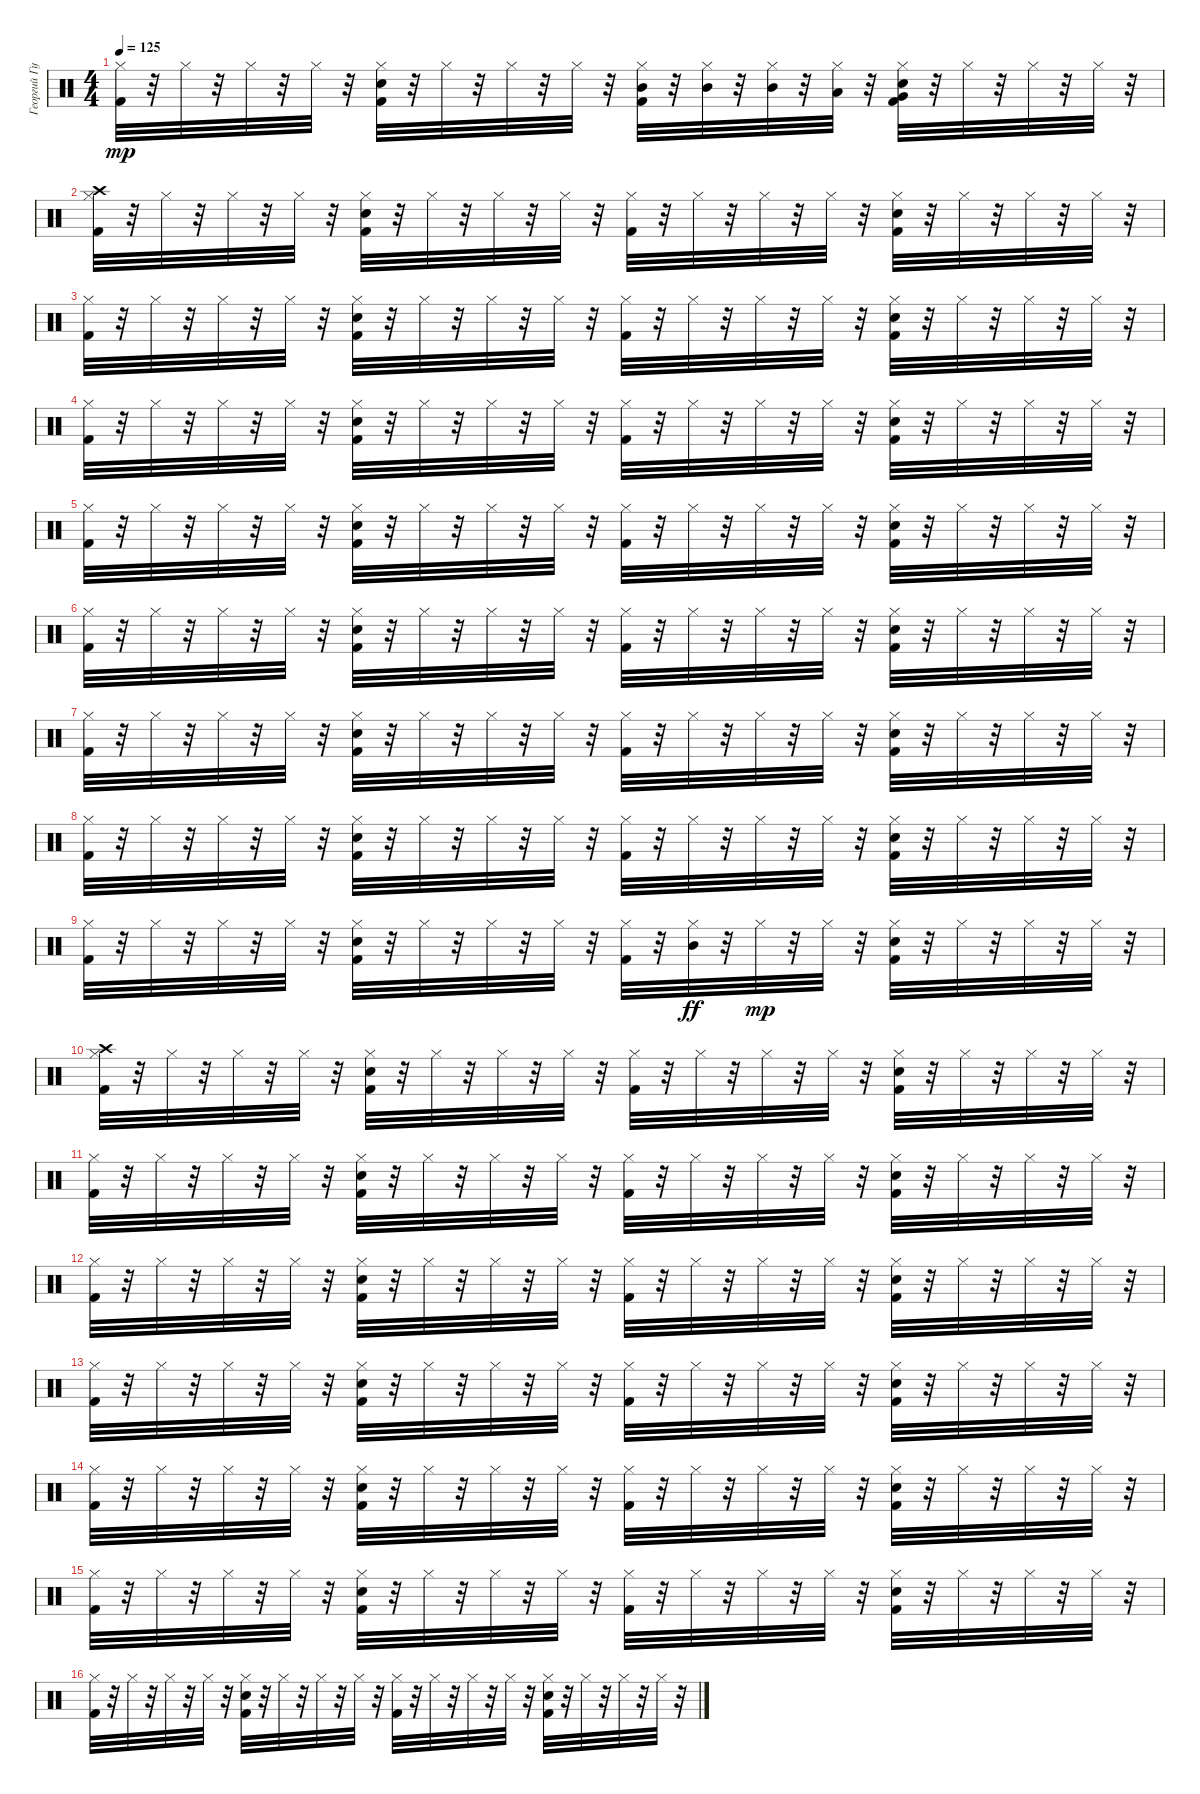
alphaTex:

\track ("Георгий Гурьянов" "Георгий Гу") {instrument percussion}
\staff {score}
\articulation defaults
\ts (4 4)
\tempo 125
\clef neutral
\ks c
("Kick (hit) 2" "Hi-Hat (closed)").32{dy mp} r.32 "Hi-Hat (closed)".32 r.32 "Hi-Hat (closed)".32 r.32 "Hi-Hat (closed)".32 r.32 ("Kick (hit) 2" "Snare (hit) 2" "Hi-Hat (closed)").32 r.32 "Hi-Hat (closed)".32 r.32 "Hi-Hat (closed)".32 r.32 "Hi-Hat (closed)".32 r.32 ("Mid Tom (hit)" "Kick (hit) 2" "Hi-Hat (closed)").32 r.32 ("Mid Tom (hit)" "Hi-Hat (closed)").32 r.32 ("Mid Tom (hit)" "Hi-Hat (closed)").32 r.32 ("Low Tom (hit)" "Hi-Hat (closed)").32 r.32 ("Very Low Tom (hit)" "Kick (hit) 2" "Snare (hit) 2" "Hi-Hat (closed)").32 r.32 "Hi-Hat (closed)".32 r.32 "Hi-Hat (closed)".32 r.32 "Hi-Hat (closed)".32 r.32 |
("Crash high (hit)" "Kick (hit) 2" "Hi-Hat (closed)").32 r.32 "Hi-Hat (closed)".32 r.32 "Hi-Hat (closed)".32 r.32 "Hi-Hat (closed)".32 r.32 ("Kick (hit) 2" "Snare (hit) 2" "Hi-Hat (closed)").32 r.32 "Hi-Hat (closed)".32 r.32 "Hi-Hat (closed)".32 r.32 "Hi-Hat (closed)".32 r.32 ("Kick (hit) 2" "Hi-Hat (closed)").32 r.32 "Hi-Hat (closed)".32 r.32 "Hi-Hat (closed)".32 r.32 "Hi-Hat (closed)".32 r.32 ("Kick (hit) 2" "Snare (hit) 2" "Hi-Hat (closed)").32 r.32 "Hi-Hat (closed)".32 r.32 "Hi-Hat (closed)".32 r.32 "Hi-Hat (closed)".32 r.32 |
("Kick (hit) 2" "Hi-Hat (closed)").32 r.32 "Hi-Hat (closed)".32 r.32 "Hi-Hat (closed)".32 r.32 "Hi-Hat (closed)".32 r.32 ("Kick (hit) 2" "Snare (hit) 2" "Hi-Hat (closed)").32 r.32 "Hi-Hat (closed)".32 r.32 "Hi-Hat (closed)".32 r.32 "Hi-Hat (closed)".32 r.32 ("Kick (hit) 2" "Hi-Hat (closed)").32 r.32 "Hi-Hat (closed)".32 r.32 "Hi-Hat (closed)".32 r.32 "Hi-Hat (closed)".32 r.32 ("Kick (hit) 2" "Snare (hit) 2" "Hi-Hat (closed)").32 r.32 "Hi-Hat (closed)".32 r.32 "Hi-Hat (closed)".32 r.32 "Hi-Hat (closed)".32 r.32 |
("Kick (hit) 2" "Hi-Hat (closed)").32 r.32 "Hi-Hat (closed)".32 r.32 "Hi-Hat (closed)".32 r.32 "Hi-Hat (closed)".32 r.32 ("Kick (hit) 2" "Snare (hit) 2" "Hi-Hat (closed)").32 r.32 "Hi-Hat (closed)".32 r.32 "Hi-Hat (closed)".32 r.32 "Hi-Hat (closed)".32 r.32 ("Kick (hit) 2" "Hi-Hat (closed)").32 r.32 "Hi-Hat (closed)".32 r.32 "Hi-Hat (closed)".32 r.32 "Hi-Hat (closed)".32 r.32 ("Kick (hit) 2" "Snare (hit) 2" "Hi-Hat (closed)").32 r.32 "Hi-Hat (closed)".32 r.32 "Hi-Hat (closed)".32 r.32 "Hi-Hat (closed)".32 r.32 |
("Kick (hit) 2" "Hi-Hat (closed)").32 r.32 "Hi-Hat (closed)".32 r.32 "Hi-Hat (closed)".32 r.32 "Hi-Hat (closed)".32 r.32 ("Kick (hit) 2" "Snare (hit) 2" "Hi-Hat (closed)").32 r.32 "Hi-Hat (closed)".32 r.32 "Hi-Hat (closed)".32 r.32 "Hi-Hat (closed)".32 r.32 ("Kick (hit) 2" "Hi-Hat (closed)").32 r.32 "Hi-Hat (closed)".32 r.32 "Hi-Hat (closed)".32 r.32 "Hi-Hat (closed)".32 r.32 ("Kick (hit) 2" "Snare (hit) 2" "Hi-Hat (closed)").32 r.32 "Hi-Hat (closed)".32 r.32 "Hi-Hat (closed)".32 r.32 "Hi-Hat (closed)".32 r.32 |
("Kick (hit) 2" "Hi-Hat (closed)").32 r.32 "Hi-Hat (closed)".32 r.32 "Hi-Hat (closed)".32 r.32 "Hi-Hat (closed)".32 r.32 ("Kick (hit) 2" "Snare (hit) 2" "Hi-Hat (closed)").32 r.32 "Hi-Hat (closed)".32 r.32 "Hi-Hat (closed)".32 r.32 "Hi-Hat (closed)".32 r.32 ("Kick (hit) 2" "Hi-Hat (closed)").32 r.32 "Hi-Hat (closed)".32 r.32 "Hi-Hat (closed)".32 r.32 "Hi-Hat (closed)".32 r.32 ("Kick (hit) 2" "Snare (hit) 2" "Hi-Hat (closed)").32 r.32 "Hi-Hat (closed)".32 r.32 "Hi-Hat (closed)".32 r.32 "Hi-Hat (closed)".32 r.32 |
("Kick (hit) 2" "Hi-Hat (closed)").32 r.32 "Hi-Hat (closed)".32 r.32 "Hi-Hat (closed)".32 r.32 "Hi-Hat (closed)".32 r.32 ("Kick (hit) 2" "Snare (hit) 2" "Hi-Hat (closed)").32 r.32 "Hi-Hat (closed)".32 r.32 "Hi-Hat (closed)".32 r.32 "Hi-Hat (closed)".32 r.32 ("Kick (hit) 2" "Hi-Hat (closed)").32 r.32 "Hi-Hat (closed)".32 r.32 "Hi-Hat (closed)".32 r.32 "Hi-Hat (closed)".32 r.32 ("Kick (hit) 2" "Snare (hit) 2" "Hi-Hat (closed)").32 r.32 "Hi-Hat (closed)".32 r.32 "Hi-Hat (closed)".32 r.32 "Hi-Hat (closed)".32 r.32 |
("Kick (hit) 2" "Hi-Hat (closed)").32 r.32 "Hi-Hat (closed)".32 r.32 "Hi-Hat (closed)".32 r.32 "Hi-Hat (closed)".32 r.32 ("Kick (hit) 2" "Snare (hit) 2" "Hi-Hat (closed)").32 r.32 "Hi-Hat (closed)".32 r.32 "Hi-Hat (closed)".32 r.32 "Hi-Hat (closed)".32 r.32 ("Kick (hit) 2" "Hi-Hat (closed)").32 r.32 "Hi-Hat (closed)".32 r.32 "Hi-Hat (closed)".32 r.32 "Hi-Hat (closed)".32 r.32 ("Kick (hit) 2" "Snare (hit) 2" "Hi-Hat (closed)").32 r.32 "Hi-Hat (closed)".32 r.32 "Hi-Hat (closed)".32 r.32 "Hi-Hat (closed)".32 r.32 |
("Kick (hit) 2" "Hi-Hat (closed)").32 r.32 "Hi-Hat (closed)".32 r.32 "Hi-Hat (closed)".32 r.32 "Hi-Hat (closed)".32 r.32 ("Kick (hit) 2" "Snare (hit) 2" "Hi-Hat (closed)").32 r.32 "Hi-Hat (closed)".32 r.32 "Hi-Hat (closed)".32 r.32 "Hi-Hat (closed)".32 r.32 ("Kick (hit) 2" "Hi-Hat (closed)").32 r.32 ("Hi-Hat (closed)" "Mid Tom (hit)").32{dy ff} r.32 "Hi-Hat (closed)".32{dy mp} r.32 "Hi-Hat (closed)".32 r.32 ("Kick (hit) 2" "Snare (hit) 2" "Hi-Hat (closed)").32 r.32 "Hi-Hat (closed)".32 r.32 "Hi-Hat (closed)".32 r.32 "Hi-Hat (closed)".32 r.32 |
("Crash high (hit)" "Kick (hit) 2" "Hi-Hat (closed)").32 r.32 "Hi-Hat (closed)".32 r.32 "Hi-Hat (closed)".32 r.32 "Hi-Hat (closed)".32 r.32 ("Kick (hit) 2" "Snare (hit) 2" "Hi-Hat (closed)").32 r.32 "Hi-Hat (closed)".32 r.32 "Hi-Hat (closed)".32 r.32 "Hi-Hat (closed)".32 r.32 ("Kick (hit) 2" "Hi-Hat (closed)").32 r.32 "Hi-Hat (closed)".32 r.32 "Hi-Hat (closed)".32 r.32 "Hi-Hat (closed)".32 r.32 ("Kick (hit) 2" "Snare (hit) 2" "Hi-Hat (closed)").32 r.32 "Hi-Hat (closed)".32 r.32 "Hi-Hat (closed)".32 r.32 "Hi-Hat (closed)".32 r.32 |
("Kick (hit) 2" "Hi-Hat (closed)").32 r.32 "Hi-Hat (closed)".32 r.32 "Hi-Hat (closed)".32 r.32 "Hi-Hat (closed)".32 r.32 ("Kick (hit) 2" "Snare (hit) 2" "Hi-Hat (closed)").32 r.32 "Hi-Hat (closed)".32 r.32 "Hi-Hat (closed)".32 r.32 "Hi-Hat (closed)".32 r.32 ("Kick (hit) 2" "Hi-Hat (closed)").32 r.32 "Hi-Hat (closed)".32 r.32 "Hi-Hat (closed)".32 r.32 "Hi-Hat (closed)".32 r.32 ("Kick (hit) 2" "Snare (hit) 2" "Hi-Hat (closed)").32 r.32 "Hi-Hat (closed)".32 r.32 "Hi-Hat (closed)".32 r.32 "Hi-Hat (closed)".32 r.32 |
("Kick (hit) 2" "Hi-Hat (closed)").32 r.32 "Hi-Hat (closed)".32 r.32 "Hi-Hat (closed)".32 r.32 "Hi-Hat (closed)".32 r.32 ("Kick (hit) 2" "Snare (hit) 2" "Hi-Hat (closed)").32 r.32 "Hi-Hat (closed)".32 r.32 "Hi-Hat (closed)".32 r.32 "Hi-Hat (closed)".32 r.32 ("Kick (hit) 2" "Hi-Hat (closed)").32 r.32 "Hi-Hat (closed)".32 r.32 "Hi-Hat (closed)".32 r.32 "Hi-Hat (closed)".32 r.32 ("Kick (hit) 2" "Snare (hit) 2" "Hi-Hat (closed)").32 r.32 "Hi-Hat (closed)".32 r.32 "Hi-Hat (closed)".32 r.32 "Hi-Hat (closed)".32 r.32 |
("Kick (hit) 2" "Hi-Hat (closed)").32 r.32 "Hi-Hat (closed)".32 r.32 "Hi-Hat (closed)".32 r.32 "Hi-Hat (closed)".32 r.32 ("Kick (hit) 2" "Snare (hit) 2" "Hi-Hat (closed)").32 r.32 "Hi-Hat (closed)".32 r.32 "Hi-Hat (closed)".32 r.32 "Hi-Hat (closed)".32 r.32 ("Kick (hit) 2" "Hi-Hat (closed)").32 r.32 "Hi-Hat (closed)".32 r.32 "Hi-Hat (closed)".32 r.32 "Hi-Hat (closed)".32 r.32 ("Kick (hit) 2" "Snare (hit) 2" "Hi-Hat (closed)").32 r.32 "Hi-Hat (closed)".32 r.32 "Hi-Hat (closed)".32 r.32 "Hi-Hat (closed)".32 r.32 |
("Kick (hit) 2" "Hi-Hat (closed)").32 r.32 "Hi-Hat (closed)".32 r.32 "Hi-Hat (closed)".32 r.32 "Hi-Hat (closed)".32 r.32 ("Kick (hit) 2" "Snare (hit) 2" "Hi-Hat (closed)").32 r.32 "Hi-Hat (closed)".32 r.32 "Hi-Hat (closed)".32 r.32 "Hi-Hat (closed)".32 r.32 ("Kick (hit) 2" "Hi-Hat (closed)").32 r.32 "Hi-Hat (closed)".32 r.32 "Hi-Hat (closed)".32 r.32 "Hi-Hat (closed)".32 r.32 ("Kick (hit) 2" "Snare (hit) 2" "Hi-Hat (closed)").32 r.32 "Hi-Hat (closed)".32 r.32 "Hi-Hat (closed)".32 r.32 "Hi-Hat (closed)".32 r.32 |
("Kick (hit) 2" "Hi-Hat (closed)").32 r.32 "Hi-Hat (closed)".32 r.32 "Hi-Hat (closed)".32 r.32 "Hi-Hat (closed)".32 r.32 ("Kick (hit) 2" "Snare (hit) 2" "Hi-Hat (closed)").32 r.32 "Hi-Hat (closed)".32 r.32 "Hi-Hat (closed)".32 r.32 "Hi-Hat (closed)".32 r.32 ("Kick (hit) 2" "Hi-Hat (closed)").32 r.32 "Hi-Hat (closed)".32 r.32 "Hi-Hat (closed)".32 r.32 "Hi-Hat (closed)".32 r.32 ("Kick (hit) 2" "Snare (hit) 2" "Hi-Hat (closed)").32 r.32 "Hi-Hat (closed)".32 r.32 "Hi-Hat (closed)".32 r.32 "Hi-Hat (closed)".32 r.32 |
("Kick (hit) 2" "Hi-Hat (closed)").32 r.32 "Hi-Hat (closed)".32 r.32 "Hi-Hat (closed)".32 r.32 "Hi-Hat (closed)".32 r.32 ("Kick (hit) 2" "Snare (hit) 2" "Hi-Hat (closed)").32 r.32 "Hi-Hat (closed)".32 r.32 "Hi-Hat (closed)".32 r.32 "Hi-Hat (closed)".32 r.32 ("Kick (hit) 2" "Hi-Hat (closed)").32 r.32 "Hi-Hat (closed)".32 r.32 "Hi-Hat (closed)".32 r.32 "Hi-Hat (closed)".32 r.32 ("Kick (hit) 2" "Snare (hit) 2" "Hi-Hat (closed)").32 r.32 "Hi-Hat (closed)".32 r.32 "Hi-Hat (closed)".32 r.32 "Hi-Hat (closed)".32 r.32
